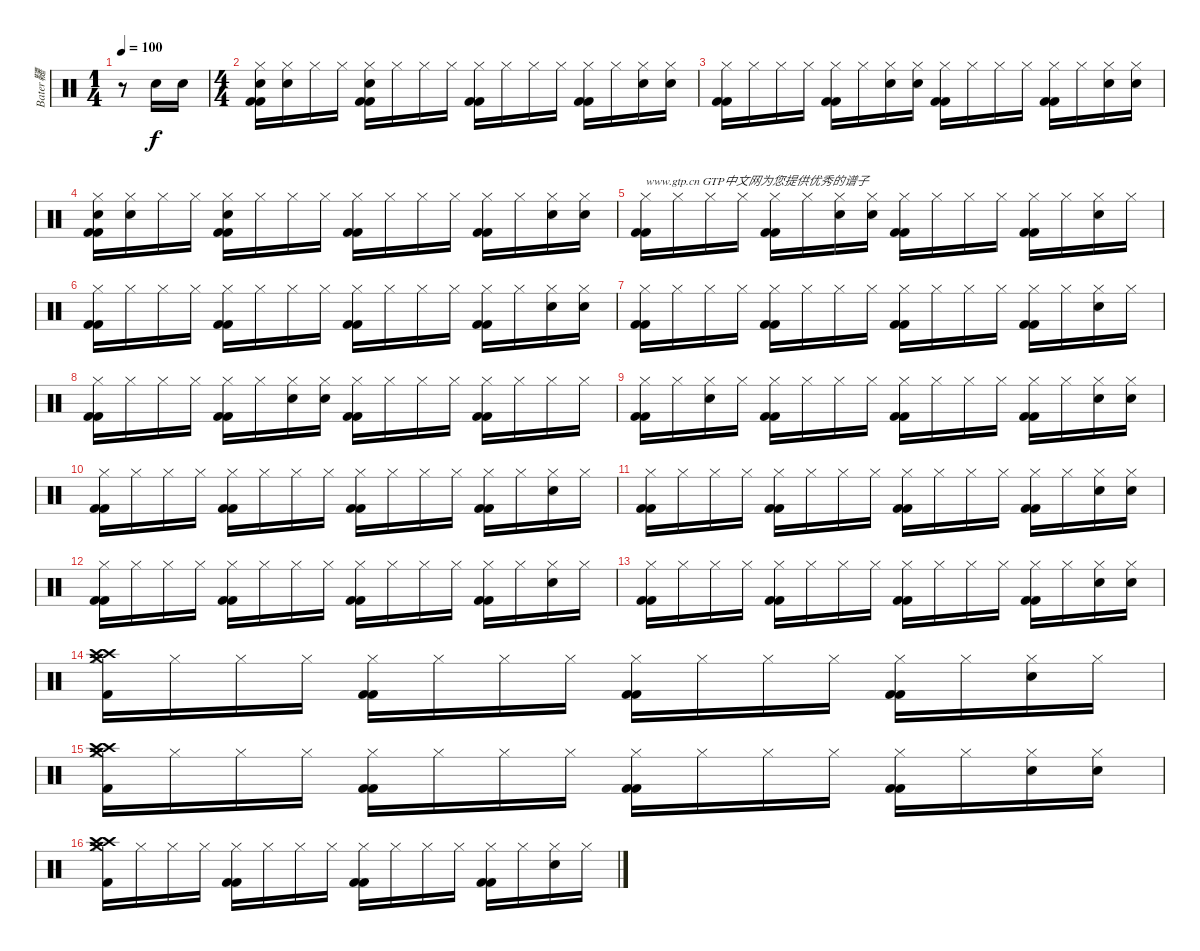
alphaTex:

\track ("Bater韆" "Bater韆") {instrument percussion}
\staff {score}
\articulation defaults
\ts (1 4)
\tempo 100
\clef neutral
\ks c
r.8{dy f} "Electric Snare (hit)".16 "Electric Snare (hit)".16 |
\ts (4 4)
("Kick (hit) 2" "Kick (hit) 2" "Electric Snare (hit)" "Hi-Hat (closed)").16 ("Electric Snare (hit)" "Hi-Hat (closed)").16 "Hi-Hat (closed)".16 "Hi-Hat (closed)".16 ("Kick (hit) 2" "Kick (hit) 2" "Electric Snare (hit)" "Hi-Hat (closed)").16 "Hi-Hat (closed)".16 "Hi-Hat (closed)".16 "Hi-Hat (closed)".16 ("Kick (hit) 2" "Kick (hit) 2" "Hi-Hat (closed)").16 "Hi-Hat (closed)".16 "Hi-Hat (closed)".16 "Hi-Hat (closed)".16 ("Kick (hit) 2" "Kick (hit) 2" "Hi-Hat (closed)").16 "Hi-Hat (closed)".16 ("Electric Snare (hit)" "Hi-Hat (closed)").16 ("Electric Snare (hit)" "Hi-Hat (closed)").16 |
("Kick (hit) 2" "Kick (hit) 2" "Hi-Hat (closed)").16 "Hi-Hat (closed)".16 "Hi-Hat (closed)".16 "Hi-Hat (closed)".16 ("Kick (hit) 2" "Kick (hit) 2" "Hi-Hat (closed)").16 "Hi-Hat (closed)".16 ("Electric Snare (hit)" "Hi-Hat (closed)").16 ("Electric Snare (hit)" "Hi-Hat (closed)").16 ("Kick (hit) 2" "Kick (hit) 2" "Hi-Hat (closed)").16 "Hi-Hat (closed)".16 "Hi-Hat (closed)".16 "Hi-Hat (closed)".16 ("Kick (hit) 2" "Kick (hit) 2" "Hi-Hat (closed)").16 "Hi-Hat (closed)".16 ("Electric Snare (hit)" "Hi-Hat (closed)").16 ("Electric Snare (hit)" "Hi-Hat (closed)").16 |
("Kick (hit) 2" "Kick (hit) 2" "Electric Snare (hit)" "Hi-Hat (closed)").16 ("Electric Snare (hit)" "Hi-Hat (closed)").16 "Hi-Hat (closed)".16 "Hi-Hat (closed)".16 ("Kick (hit) 2" "Kick (hit) 2" "Electric Snare (hit)" "Hi-Hat (closed)").16 "Hi-Hat (closed)".16 "Hi-Hat (closed)".16 "Hi-Hat (closed)".16 ("Kick (hit) 2" "Kick (hit) 2" "Hi-Hat (closed)").16 "Hi-Hat (closed)".16 "Hi-Hat (closed)".16 "Hi-Hat (closed)".16 ("Kick (hit) 2" "Kick (hit) 2" "Hi-Hat (closed)").16 "Hi-Hat (closed)".16 ("Electric Snare (hit)" "Hi-Hat (closed)").16 ("Electric Snare (hit)" "Hi-Hat (closed)").16 |
("Kick (hit) 2" "Kick (hit) 2" "Hi-Hat (closed)").16{txt "www.gtp.cn GTP中文网为您提供优秀的谱子"} "Hi-Hat (closed)".16 "Hi-Hat (closed)".16 "Hi-Hat (closed)".16 ("Kick (hit) 2" "Kick (hit) 2" "Hi-Hat (closed)").16 "Hi-Hat (closed)".16 ("Electric Snare (hit)" "Hi-Hat (closed)").16 ("Electric Snare (hit)" "Hi-Hat (closed)").16 ("Kick (hit) 2" "Kick (hit) 2" "Hi-Hat (closed)").16 "Hi-Hat (closed)".16 "Hi-Hat (closed)".16 "Hi-Hat (closed)".16 ("Kick (hit) 2" "Kick (hit) 2" "Hi-Hat (closed)").16 "Hi-Hat (closed)".16 ("Electric Snare (hit)" "Hi-Hat (closed)").16 "Hi-Hat (closed)".16 |
("Kick (hit) 2" "Kick (hit) 2" "Hi-Hat (closed)").16 "Hi-Hat (closed)".16 "Hi-Hat (closed)".16 "Hi-Hat (closed)".16 ("Kick (hit) 2" "Kick (hit) 2" "Hi-Hat (closed)").16 "Hi-Hat (closed)".16 "Hi-Hat (closed)".16 "Hi-Hat (closed)".16 ("Kick (hit) 2" "Kick (hit) 2" "Hi-Hat (closed)").16 "Hi-Hat (closed)".16 "Hi-Hat (closed)".16 "Hi-Hat (closed)".16 ("Kick (hit) 2" "Kick (hit) 2" "Hi-Hat (closed)").16 "Hi-Hat (closed)".16 ("Electric Snare (hit)" "Hi-Hat (closed)").16 ("Electric Snare (hit)" "Hi-Hat (closed)").16 |
("Kick (hit) 2" "Kick (hit) 2" "Hi-Hat (closed)").16 "Hi-Hat (closed)".16 "Hi-Hat (closed)".16 "Hi-Hat (closed)".16 ("Kick (hit) 2" "Kick (hit) 2" "Hi-Hat (closed)").16 "Hi-Hat (closed)".16 "Hi-Hat (closed)".16 "Hi-Hat (closed)".16 ("Kick (hit) 2" "Kick (hit) 2" "Hi-Hat (closed)").16 "Hi-Hat (closed)".16 "Hi-Hat (closed)".16 "Hi-Hat (closed)".16 ("Kick (hit) 2" "Kick (hit) 2" "Hi-Hat (closed)").16 "Hi-Hat (closed)".16 ("Electric Snare (hit)" "Hi-Hat (closed)").16 "Hi-Hat (closed)".16 |
("Kick (hit) 2" "Kick (hit) 2" "Hi-Hat (closed)").16 "Hi-Hat (closed)".16 "Hi-Hat (closed)".16 "Hi-Hat (closed)".16 ("Kick (hit) 2" "Kick (hit) 2" "Hi-Hat (closed)").16 "Hi-Hat (closed)".16 ("Electric Snare (hit)" "Hi-Hat (closed)").16 ("Electric Snare (hit)" "Hi-Hat (closed)").16 ("Kick (hit) 2" "Kick (hit) 2" "Hi-Hat (closed)").16 "Hi-Hat (closed)".16 "Hi-Hat (closed)".16 "Hi-Hat (closed)".16 ("Kick (hit) 2" "Kick (hit) 2" "Hi-Hat (closed)").16 "Hi-Hat (closed)".16 "Hi-Hat (closed)".16 "Hi-Hat (closed)".16 |
("Kick (hit) 2" "Kick (hit) 2" "Hi-Hat (closed)").16 "Hi-Hat (closed)".16 ("Electric Snare (hit)" "Hi-Hat (closed)").16 "Hi-Hat (closed)".16 ("Kick (hit) 2" "Kick (hit) 2" "Hi-Hat (closed)").16 "Hi-Hat (closed)".16 "Hi-Hat (closed)".16 "Hi-Hat (closed)".16 ("Kick (hit) 2" "Kick (hit) 2" "Hi-Hat (closed)").16 "Hi-Hat (closed)".16 "Hi-Hat (closed)".16 "Hi-Hat (closed)".16 ("Kick (hit) 2" "Kick (hit) 2" "Hi-Hat (closed)").16 "Hi-Hat (closed)".16 ("Electric Snare (hit)" "Hi-Hat (closed)").16 ("Electric Snare (hit)" "Hi-Hat (closed)").16 |
("Kick (hit) 2" "Kick (hit) 2" "Hi-Hat (closed)").16 "Hi-Hat (closed)".16 "Hi-Hat (closed)".16 "Hi-Hat (closed)".16 ("Kick (hit) 2" "Kick (hit) 2" "Hi-Hat (closed)").16 "Hi-Hat (closed)".16 "Hi-Hat (closed)".16 "Hi-Hat (closed)".16 ("Kick (hit) 2" "Kick (hit) 2" "Hi-Hat (closed)").16 "Hi-Hat (closed)".16 "Hi-Hat (closed)".16 "Hi-Hat (closed)".16 ("Kick (hit) 2" "Kick (hit) 2" "Hi-Hat (closed)").16 "Hi-Hat (closed)".16 ("Electric Snare (hit)" "Hi-Hat (closed)").16 "Hi-Hat (closed)".16 |
("Kick (hit) 2" "Kick (hit) 2" "Hi-Hat (closed)").16 "Hi-Hat (closed)".16 "Hi-Hat (closed)".16 "Hi-Hat (closed)".16 ("Kick (hit) 2" "Kick (hit) 2" "Hi-Hat (closed)").16 "Hi-Hat (closed)".16 "Hi-Hat (closed)".16 "Hi-Hat (closed)".16 ("Kick (hit) 2" "Kick (hit) 2" "Hi-Hat (closed)").16 "Hi-Hat (closed)".16 "Hi-Hat (closed)".16 "Hi-Hat (closed)".16 ("Kick (hit) 2" "Kick (hit) 2" "Hi-Hat (closed)").16 "Hi-Hat (closed)".16 ("Electric Snare (hit)" "Hi-Hat (closed)").16 ("Electric Snare (hit)" "Hi-Hat (closed)").16 |
("Kick (hit) 2" "Kick (hit) 2" "Hi-Hat (closed)").16 "Hi-Hat (closed)".16 "Hi-Hat (closed)".16 "Hi-Hat (closed)".16 ("Kick (hit) 2" "Kick (hit) 2" "Hi-Hat (closed)").16 "Hi-Hat (closed)".16 "Hi-Hat (closed)".16 "Hi-Hat (closed)".16 ("Kick (hit) 2" "Kick (hit) 2" "Hi-Hat (closed)").16 "Hi-Hat (closed)".16 "Hi-Hat (closed)".16 "Hi-Hat (closed)".16 ("Kick (hit) 2" "Kick (hit) 2" "Hi-Hat (closed)").16 "Hi-Hat (closed)".16 ("Electric Snare (hit)" "Hi-Hat (closed)").16 "Hi-Hat (closed)".16 |
("Kick (hit) 2" "Kick (hit) 2" "Hi-Hat (closed)").16 "Hi-Hat (closed)".16 "Hi-Hat (closed)".16 "Hi-Hat (closed)".16 ("Kick (hit) 2" "Kick (hit) 2" "Hi-Hat (closed)").16 "Hi-Hat (closed)".16 "Hi-Hat (closed)".16 "Hi-Hat (closed)".16 ("Kick (hit) 2" "Kick (hit) 2" "Hi-Hat (closed)").16 "Hi-Hat (closed)".16 "Hi-Hat (closed)".16 "Hi-Hat (closed)".16 ("Kick (hit) 2" "Kick (hit) 2" "Hi-Hat (closed)").16 "Hi-Hat (closed)".16 ("Electric Snare (hit)" "Hi-Hat (closed)").16 ("Electric Snare (hit)" "Hi-Hat (closed)").16 |
("Crash high (hit)" "Crash high (hit)" "Crash medium (hit)" "Kick (hit) 2" "Hi-Hat (closed)").16 "Hi-Hat (closed)".16 "Hi-Hat (closed)".16 "Hi-Hat (closed)".16 ("Kick (hit) 2" "Kick (hit) 2" "Hi-Hat (closed)").16 "Hi-Hat (closed)".16 "Hi-Hat (closed)".16 "Hi-Hat (closed)".16 ("Kick (hit) 2" "Kick (hit) 2" "Hi-Hat (closed)").16 "Hi-Hat (closed)".16 "Hi-Hat (closed)".16 "Hi-Hat (closed)".16 ("Kick (hit) 2" "Kick (hit) 2" "Hi-Hat (closed)").16 "Hi-Hat (closed)".16 ("Electric Snare (hit)" "Hi-Hat (closed)").16 "Hi-Hat (closed)".16 |
("Crash high (hit)" "Crash high (hit)" "Crash medium (hit)" "Kick (hit) 2" "Hi-Hat (closed)").16 "Hi-Hat (closed)".16 "Hi-Hat (closed)".16 "Hi-Hat (closed)".16 ("Kick (hit) 2" "Kick (hit) 2" "Hi-Hat (closed)").16 "Hi-Hat (closed)".16 "Hi-Hat (closed)".16 "Hi-Hat (closed)".16 ("Kick (hit) 2" "Kick (hit) 2" "Hi-Hat (closed)").16 "Hi-Hat (closed)".16 "Hi-Hat (closed)".16 "Hi-Hat (closed)".16 ("Kick (hit) 2" "Kick (hit) 2" "Hi-Hat (closed)").16 "Hi-Hat (closed)".16 ("Electric Snare (hit)" "Hi-Hat (closed)").16 ("Electric Snare (hit)" "Hi-Hat (closed)").16 |
("Crash high (hit)" "Crash high (hit)" "Crash medium (hit)" "Kick (hit) 2" "Hi-Hat (closed)").16 "Hi-Hat (closed)".16 "Hi-Hat (closed)".16 "Hi-Hat (closed)".16 ("Kick (hit) 2" "Kick (hit) 2" "Hi-Hat (closed)").16 "Hi-Hat (closed)".16 "Hi-Hat (closed)".16 "Hi-Hat (closed)".16 ("Kick (hit) 2" "Kick (hit) 2" "Hi-Hat (closed)").16 "Hi-Hat (closed)".16 "Hi-Hat (closed)".16 "Hi-Hat (closed)".16 ("Kick (hit) 2" "Kick (hit) 2" "Hi-Hat (closed)").16 "Hi-Hat (closed)".16 ("Electric Snare (hit)" "Hi-Hat (closed)").16 "Hi-Hat (closed)".16
